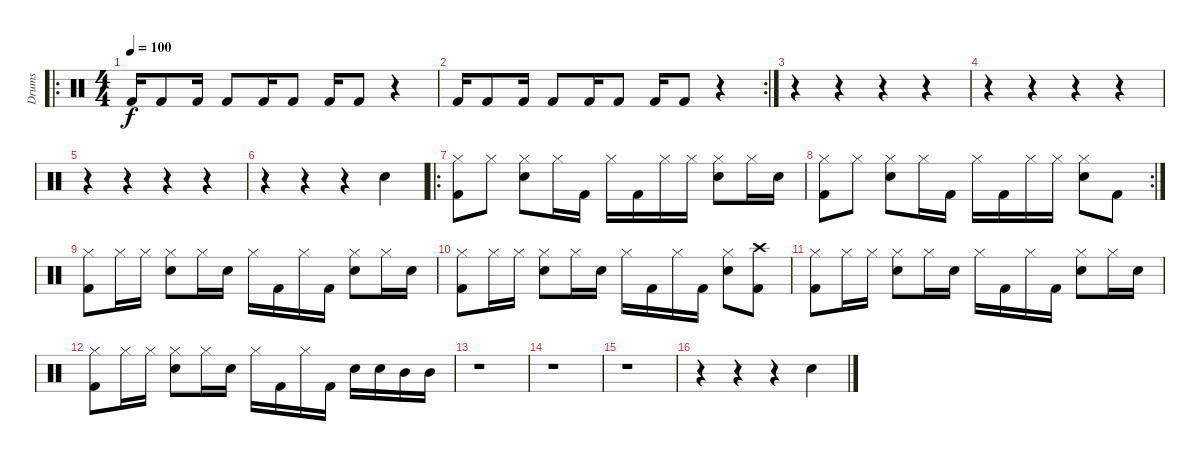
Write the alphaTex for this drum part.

\track ("Drums" "Drums") {instrument percussion}
\staff {score}
\articulation defaults
\ro
\ts (4 4)
\tempo 100
\clef neutral
\ks c "Kick (hit) 2".16{dy f} "Kick (hit) 2".8 "Kick (hit) 2".16 "Kick (hit) 2".8 "Kick (hit) 2".16 "Kick (hit) 2".8 "Kick (hit) 2".16 "Kick (hit) 2".8
r.4 |
\rc 2 "Kick (hit) 2".16 "Kick (hit) 2".8 "Kick (hit) 2".16 "Kick (hit) 2".8 "Kick (hit) 2".16 "Kick (hit) 2".8 "Kick (hit) 2".16 "Kick (hit) 2".8
r.4 |
r.4 r.4 r.4 r.4 |
r.4 r.4 r.4 r.4 |
r.4 r.4 r.4 r.4 |
r.4 r.4 r.4 "Snare (hit) 2".4 |
\ro
("Hi-Hat (closed)" "Kick (hit) 2").8 "Hi-Hat (closed)".8 ("Snare (hit) 2" "Hi-Hat (closed)").8 "Hi-Hat (closed)".16 "Kick (hit) 2".16 "Hi-Hat (closed)".16 "Kick (hit) 2".16 "Hi-Hat (closed)".16 "Hi-Hat (closed)".16 ("Hi-Hat (closed)" "Snare (hit) 2").8 "Hi-Hat (closed)".16 "Snare (hit) 2".16 |
\rc 2
("Hi-Hat (closed)" "Kick (hit) 2").8 "Hi-Hat (closed)".8 ("Snare (hit) 2" "Hi-Hat (closed)").8 "Hi-Hat (closed)".16 "Kick (hit) 2".16 "Hi-Hat (closed)".16 "Kick (hit) 2".16 "Hi-Hat (closed)".16 "Hi-Hat (closed)".16 ("Hi-Hat (closed)" "Snare (hit) 2").8 "Kick (hit) 2".8 |
("Hi-Hat (closed)" "Kick (hit) 2").8 "Hi-Hat (closed)".16 "Hi-Hat (closed)".16 ("Hi-Hat (closed)" "Snare (hit) 2").8 "Hi-Hat (closed)".16 "Snare (hit) 2".16 "Hi-Hat (closed)".16 "Kick (hit) 2".16 "Hi-Hat (closed)".16 "Kick (hit) 2".16 ("Hi-Hat (closed)" "Snare (hit) 2").8 "Hi-Hat (closed)".16 "Snare (hit) 2".16 |
("Hi-Hat (closed)" "Kick (hit) 2").8 "Hi-Hat (closed)".16 "Hi-Hat (closed)".16 ("Hi-Hat (closed)" "Snare (hit) 2").8 "Hi-Hat (closed)".16 "Snare (hit) 2".16 "Hi-Hat (closed)".16 "Kick (hit) 2".16 "Hi-Hat (closed)".16 "Kick (hit) 2".16 ("Hi-Hat (closed)" "Snare (hit) 2").8 ("Crash high (hit)" "Kick (hit) 2").8 |
("Hi-Hat (closed)" "Kick (hit) 2").8 "Hi-Hat (closed)".16 "Hi-Hat (closed)".16 ("Hi-Hat (closed)" "Snare (hit) 2").8 "Hi-Hat (closed)".16 "Snare (hit) 2".16 "Hi-Hat (closed)".16 "Kick (hit) 2".16 "Hi-Hat (closed)".16 "Kick (hit) 2".16 ("Hi-Hat (closed)" "Snare (hit) 2").8 "Hi-Hat (closed)".16 "Snare (hit) 2".16 |
("Hi-Hat (closed)" "Kick (hit) 2").8 "Hi-Hat (closed)".16 "Hi-Hat (closed)".16 ("Hi-Hat (closed)" "Snare (hit) 2").8 "Hi-Hat (closed)".16 "Snare (hit) 2".16 "Hi-Hat (closed)".16 "Kick (hit) 2".16 "Hi-Hat (closed)".16 "Kick (hit) 2".16 "Snare (hit) 2".16 "Snare (hit) 2".16 "Mid Tom (hit)".16 "Mid Tom (hit)".16 |
r.1 |
r.1 |
r.1 |
r.4 r.4 r.4 "Snare (hit) 2".4
